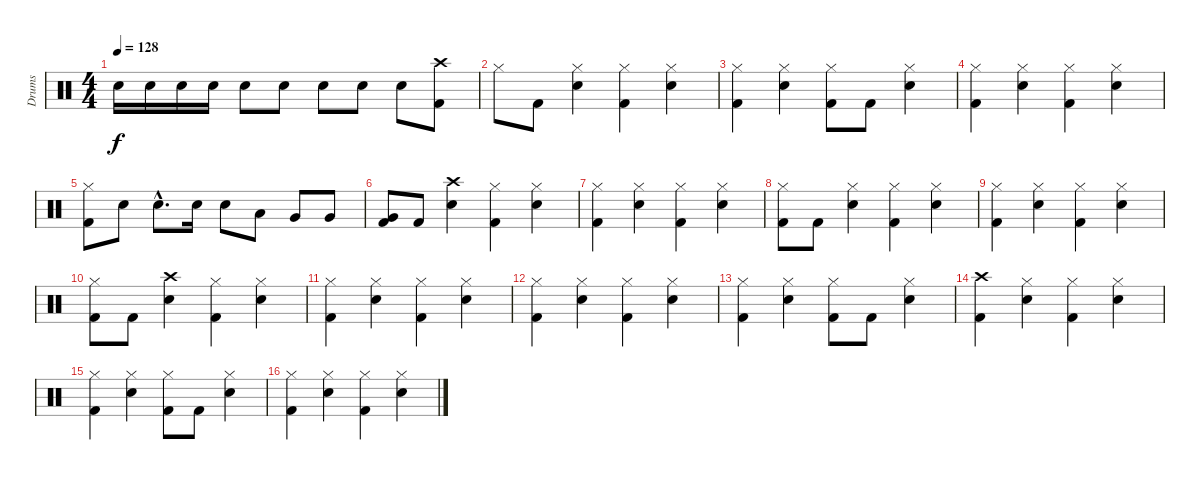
\track ("Drums" "Drums") {instrument percussion}
\staff {score}
\articulation defaults
\ts (4 4)
\tempo 128
\clef neutral
\ks c "Electric Snare (hit)".16{dy f} "Electric Snare (hit)".16 "Electric Snare (hit)".16 "Electric Snare (hit)".16 "Electric Snare (hit)".8 "Electric Snare (hit)".8 "Electric Snare (hit)".8 "Electric Snare (hit)".8 "Electric Snare (hit)".8
("Crash high (hit)" "Kick (hit) 2").8 |
"Hi-Hat (closed)".8 "Kick (hit) 2".8 ("Hi-Hat (closed)" "Electric Snare (hit)").4 ("Hi-Hat (closed)" "Kick (hit) 2").4 ("Hi-Hat (closed)" "Electric Snare (hit)").4 |
("Hi-Hat (closed)" "Kick (hit) 2").4 ("Hi-Hat (closed)" "Electric Snare (hit)").4 ("Hi-Hat (closed)" "Kick (hit) 2").8 "Kick (hit) 2".8 ("Hi-Hat (closed)" "Electric Snare (hit)").4 |
("Hi-Hat (closed)" "Kick (hit) 2").4 ("Hi-Hat (closed)" "Electric Snare (hit)").4 ("Hi-Hat (closed)" "Kick (hit) 2").4 ("Hi-Hat (closed)" "Electric Snare (hit)").4 |
("Hi-Hat (closed)" "Kick (hit) 2").8 "Electric Snare (hit)".8 "Electric Snare (hit)"{hac}.8{d} "Electric Snare (hit)".16 "Electric Snare (hit)".8 "Low Tom (hit)".8 "Very Low Tom (hit)".8 "Very Low Tom (hit)".8 |
("Very Low Tom (hit)" "Kick (hit) 2").8 "Kick (hit) 2".8 ("Crash high (hit)" "Electric Snare (hit)").4 ("Hi-Hat (closed)" "Kick (hit) 2").4 ("Hi-Hat (closed)" "Electric Snare (hit)").4 |
("Hi-Hat (closed)" "Kick (hit) 2").4 ("Hi-Hat (closed)" "Electric Snare (hit)").4 ("Hi-Hat (closed)" "Kick (hit) 2").4 ("Hi-Hat (closed)" "Electric Snare (hit)").4 |
("Hi-Hat (closed)" "Kick (hit) 2").8 "Kick (hit) 2".8 ("Hi-Hat (closed)" "Electric Snare (hit)").4 ("Hi-Hat (closed)" "Kick (hit) 2").4 ("Hi-Hat (closed)" "Electric Snare (hit)").4 |
("Hi-Hat (closed)" "Kick (hit) 2").4 ("Hi-Hat (closed)" "Electric Snare (hit)").4 ("Hi-Hat (closed)" "Kick (hit) 2").4 ("Hi-Hat (closed)" "Electric Snare (hit)").4 |
("Hi-Hat (closed)" "Kick (hit) 2").8 "Kick (hit) 2".8 ("Crash high (hit)" "Electric Snare (hit)").4 ("Hi-Hat (closed)" "Kick (hit) 2").4 ("Hi-Hat (closed)" "Electric Snare (hit)").4 |
("Hi-Hat (closed)" "Kick (hit) 2").4 ("Hi-Hat (closed)" "Electric Snare (hit)").4 ("Hi-Hat (closed)" "Kick (hit) 2").4 ("Hi-Hat (closed)" "Electric Snare (hit)").4 |
("Hi-Hat (closed)" "Kick (hit) 2").4 ("Hi-Hat (closed)" "Electric Snare (hit)").4 ("Hi-Hat (closed)" "Kick (hit) 2").4 ("Hi-Hat (closed)" "Electric Snare (hit)").4 |
("Hi-Hat (closed)" "Kick (hit) 2").4 ("Hi-Hat (closed)" "Electric Snare (hit)").4 ("Hi-Hat (closed)" "Kick (hit) 2").8 "Kick (hit) 2".8 ("Hi-Hat (closed)" "Electric Snare (hit)").4 |
("Crash high (hit)" "Kick (hit) 2").4 ("Hi-Hat (closed)" "Electric Snare (hit)").4 ("Hi-Hat (closed)" "Kick (hit) 2").4 ("Hi-Hat (closed)" "Electric Snare (hit)").4 |
("Hi-Hat (closed)" "Kick (hit) 2").4 ("Hi-Hat (closed)" "Electric Snare (hit)").4 ("Hi-Hat (closed)" "Kick (hit) 2").8 "Kick (hit) 2".8 ("Hi-Hat (closed)" "Electric Snare (hit)").4 |
("Hi-Hat (closed)" "Kick (hit) 2").4 ("Hi-Hat (closed)" "Electric Snare (hit)").4 ("Hi-Hat (closed)" "Kick (hit) 2").4 ("Hi-Hat (closed)" "Electric Snare (hit)").4
